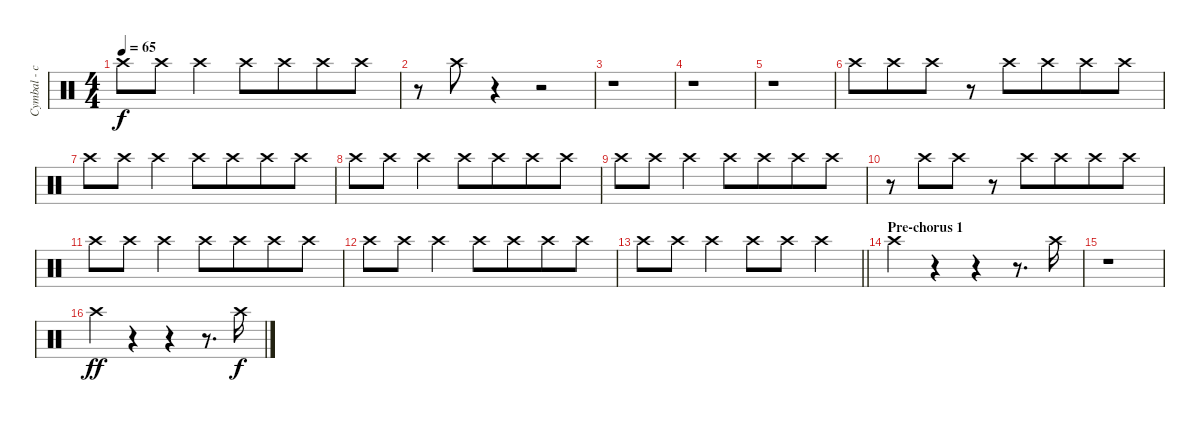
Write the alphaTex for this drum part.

\track ("Cymbal - crash - left" "Cymbal - c") {instrument percussion}
\staff {score}
\articulation defaults
\ts (4 4)
\tempo 65
\clef neutral
\ks c "Crash high (hit)".8{dy f} "Crash high (hit)".8{beam merge} "Crash high (hit)".4 "Crash high (hit)".8 "Crash high (hit)".8{beam merge} "Crash high (hit)".8 "Crash high (hit)".8
|
r.8 "Crash high (hit)".8{volume 0} r.4 r.2 |
r.1 |
r.1 |
r.1 |
"Crash high (hit)".8{volume 11} "Crash high (hit)".8{beam merge} "Crash high (hit)".8 r.8 "Crash high (hit)".8 "Crash high (hit)".8{beam merge} "Crash high (hit)".8 "Crash high (hit)".8 |
"Crash high (hit)".8 "Crash high (hit)".8{beam merge} "Crash high (hit)".4 "Crash high (hit)".8 "Crash high (hit)".8{beam merge} "Crash high (hit)".8 "Crash high (hit)".8 |
"Crash high (hit)".8 "Crash high (hit)".8{beam merge} "Crash high (hit)".4 "Crash high (hit)".8 "Crash high (hit)".8{beam merge} "Crash high (hit)".8 "Crash high (hit)".8 |
"Crash high (hit)".8 "Crash high (hit)".8{beam merge} "Crash high (hit)".4 "Crash high (hit)".8 "Crash high (hit)".8{beam merge} "Crash high (hit)".8 "Crash high (hit)".8 |
r.8 "Crash high (hit)".8{beam merge} "Crash high (hit)".8 r.8 "Crash high (hit)".8 "Crash high (hit)".8{beam merge} "Crash high (hit)".8 "Crash high (hit)".8 |
"Crash high (hit)".8 "Crash high (hit)".8{beam merge} "Crash high (hit)".4 "Crash high (hit)".8 "Crash high (hit)".8{beam merge} "Crash high (hit)".8 "Crash high (hit)".8 |
"Crash high (hit)".8 "Crash high (hit)".8{beam merge} "Crash high (hit)".4 "Crash high (hit)".8 "Crash high (hit)".8{beam merge} "Crash high (hit)".8 "Crash high (hit)".8 |
\barLineRight lightlight "Crash high (hit)".8 "Crash high (hit)".8{beam merge} "Crash high (hit)".4 "Crash high (hit)".8 "Crash high (hit)".8{beam merge} "Crash high (hit)".4
|
\section ("" "Pre-chorus 1")
"Crash high (hit)".4 r.4 r.4 r.8{d} "Crash high (hit)".16 |
r.1 |
"Crash high (hit)".4{dy ff} r.4 r.4 r.8{d} "Crash high (hit)".16{dy f}
